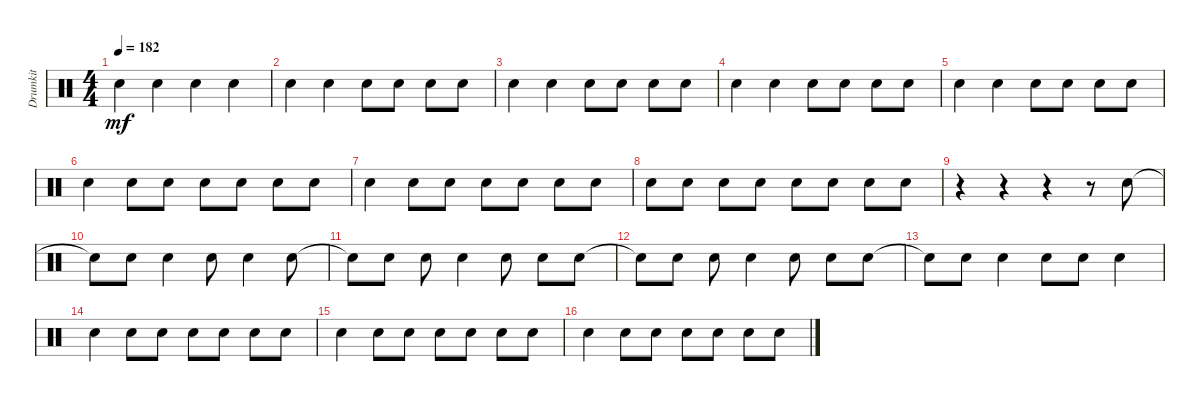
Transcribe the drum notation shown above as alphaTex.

\track ("Drumkit" "Drumkit") {instrument percussion}
\staff {score}
\articulation defaults
\ts (4 4)
\tempo 182
\clef neutral
\ks c "Snare (hit)".4{dy mf} "Snare (hit)".4 "Snare (hit)".4 "Snare (hit)".4
|
"Snare (hit)".4 "Snare (hit)".4 "Snare (hit)".8 "Snare (hit)".8 "Snare (hit)".8 "Snare (hit)".8 |
"Snare (hit)".4 "Snare (hit)".4 "Snare (hit)".8 "Snare (hit)".8 "Snare (hit)".8 "Snare (hit)".8 |
"Snare (hit)".4 "Snare (hit)".4 "Snare (hit)".8 "Snare (hit)".8 "Snare (hit)".8 "Snare (hit)".8 |
"Snare (hit)".4 "Snare (hit)".4 "Snare (hit)".8 "Snare (hit)".8 "Snare (hit)".8 "Snare (hit)".8 |
"Snare (hit)".4 "Snare (hit)".8 "Snare (hit)".8 "Snare (hit)".8 "Snare (hit)".8 "Snare (hit)".8 "Snare (hit)".8 |
"Snare (hit)".4 "Snare (hit)".8 "Snare (hit)".8 "Snare (hit)".8 "Snare (hit)".8 "Snare (hit)".8 "Snare (hit)".8 |
"Snare (hit)".8 "Snare (hit)".8 "Snare (hit)".8 "Snare (hit)".8 "Snare (hit)".8 "Snare (hit)".8 "Snare (hit)".8 "Snare (hit)".8 |
r.4 r.4 r.4 r.8 "Snare (hit)".8 |
"Snare (hit)"{t}.8 "Snare (hit)".8 "Snare (hit)".4 "Snare (hit)".8 "Snare (hit)".4 "Snare (hit)".8 |
"Snare (hit)"{t}.8 "Snare (hit)".8 "Snare (hit)".8 "Snare (hit)".4 "Snare (hit)".8 "Snare (hit)".8 "Snare (hit)".8 |
"Snare (hit)"{t}.8 "Snare (hit)".8 "Snare (hit)".8 "Snare (hit)".4 "Snare (hit)".8 "Snare (hit)".8 "Snare (hit)".8 |
"Snare (hit)"{t}.8 "Snare (hit)".8 "Snare (hit)".4 "Snare (hit)".8 "Snare (hit)".8 "Snare (hit)".4 |
"Snare (hit)".4 "Snare (hit)".8 "Snare (hit)".8 "Snare (hit)".8 "Snare (hit)".8 "Snare (hit)".8 "Snare (hit)".8 |
"Snare (hit)".4 "Snare (hit)".8 "Snare (hit)".8 "Snare (hit)".8 "Snare (hit)".8 "Snare (hit)".8 "Snare (hit)".8 |
"Snare (hit)".4 "Snare (hit)".8 "Snare (hit)".8 "Snare (hit)".8 "Snare (hit)".8 "Snare (hit)".8 "Snare (hit)".8
